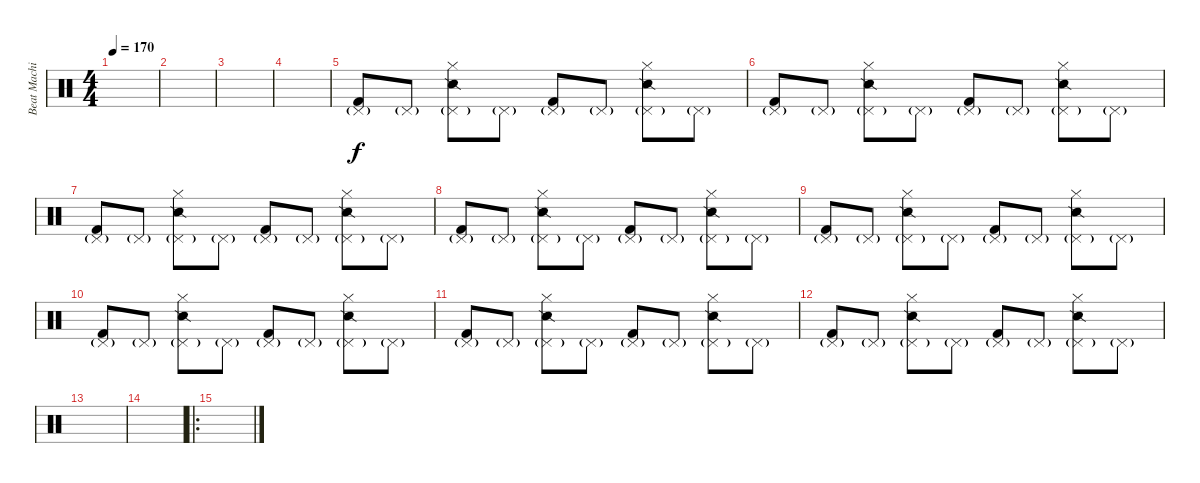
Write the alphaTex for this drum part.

\track ("Beat Machine" "Beat Machi") {instrument percussion}
\staff {score}
\articulation defaults
\ts (4 4)
\tempo 170
\clef neutral
\ks c
|
|
|
|
("Pedal Hi-Hat (hit)"{g} "Kick (hit) 2").8 "Pedal Hi-Hat (hit)"{g}.8 ("Pedal Hi-Hat (hit)"{g} "Snare (side stick) 2" "Hi-Hat (closed)").8 "Pedal Hi-Hat (hit)"{g}.8 ("Pedal Hi-Hat (hit)"{g} "Kick (hit) 2").8 "Pedal Hi-Hat (hit)"{g}.8 ("Pedal Hi-Hat (hit)"{g} "Snare (side stick) 2" "Hi-Hat (closed)").8 "Pedal Hi-Hat (hit)"{g}.8 |
("Pedal Hi-Hat (hit)"{g} "Kick (hit) 2").8 "Pedal Hi-Hat (hit)"{g}.8 ("Pedal Hi-Hat (hit)"{g} "Snare (side stick) 2" "Hi-Hat (closed)").8 "Pedal Hi-Hat (hit)"{g}.8 ("Pedal Hi-Hat (hit)"{g} "Kick (hit) 2").8 "Pedal Hi-Hat (hit)"{g}.8 ("Pedal Hi-Hat (hit)"{g} "Snare (side stick) 2" "Hi-Hat (closed)").8 "Pedal Hi-Hat (hit)"{g}.8 |
("Pedal Hi-Hat (hit)"{g} "Kick (hit) 2").8 "Pedal Hi-Hat (hit)"{g}.8 ("Pedal Hi-Hat (hit)"{g} "Snare (side stick) 2" "Hi-Hat (closed)").8 "Pedal Hi-Hat (hit)"{g}.8 ("Pedal Hi-Hat (hit)"{g} "Kick (hit) 2").8 "Pedal Hi-Hat (hit)"{g}.8 ("Pedal Hi-Hat (hit)"{g} "Snare (side stick) 2" "Hi-Hat (closed)").8 "Pedal Hi-Hat (hit)"{g}.8 |
("Pedal Hi-Hat (hit)"{g} "Kick (hit) 2").8 "Pedal Hi-Hat (hit)"{g}.8 ("Pedal Hi-Hat (hit)"{g} "Snare (side stick) 2" "Hi-Hat (closed)").8 "Pedal Hi-Hat (hit)"{g}.8 ("Pedal Hi-Hat (hit)"{g} "Kick (hit) 2").8 "Pedal Hi-Hat (hit)"{g}.8 ("Pedal Hi-Hat (hit)"{g} "Snare (side stick) 2" "Hi-Hat (closed)").8 "Pedal Hi-Hat (hit)"{g}.8 |
("Pedal Hi-Hat (hit)"{g} "Kick (hit) 2").8 "Pedal Hi-Hat (hit)"{g}.8 ("Pedal Hi-Hat (hit)"{g} "Snare (side stick) 2" "Hi-Hat (closed)").8 "Pedal Hi-Hat (hit)"{g}.8 ("Pedal Hi-Hat (hit)"{g} "Kick (hit) 2").8 "Pedal Hi-Hat (hit)"{g}.8 ("Pedal Hi-Hat (hit)"{g} "Snare (side stick) 2" "Hi-Hat (closed)").8 "Pedal Hi-Hat (hit)"{g}.8 |
("Pedal Hi-Hat (hit)"{g} "Kick (hit) 2").8 "Pedal Hi-Hat (hit)"{g}.8 ("Pedal Hi-Hat (hit)"{g} "Snare (side stick) 2" "Hi-Hat (closed)").8 "Pedal Hi-Hat (hit)"{g}.8 ("Pedal Hi-Hat (hit)"{g} "Kick (hit) 2").8 "Pedal Hi-Hat (hit)"{g}.8 ("Pedal Hi-Hat (hit)"{g} "Snare (side stick) 2" "Hi-Hat (closed)").8 "Pedal Hi-Hat (hit)"{g}.8 |
("Pedal Hi-Hat (hit)"{g} "Kick (hit) 2").8 "Pedal Hi-Hat (hit)"{g}.8 ("Pedal Hi-Hat (hit)"{g} "Snare (side stick) 2" "Hi-Hat (closed)").8 "Pedal Hi-Hat (hit)"{g}.8 ("Pedal Hi-Hat (hit)"{g} "Kick (hit) 2").8 "Pedal Hi-Hat (hit)"{g}.8 ("Pedal Hi-Hat (hit)"{g} "Snare (side stick) 2" "Hi-Hat (closed)").8 "Pedal Hi-Hat (hit)"{g}.8 |
("Pedal Hi-Hat (hit)"{g} "Kick (hit) 2").8 "Pedal Hi-Hat (hit)"{g}.8 ("Pedal Hi-Hat (hit)"{g} "Snare (side stick) 2" "Hi-Hat (closed)").8 "Pedal Hi-Hat (hit)"{g}.8 ("Pedal Hi-Hat (hit)"{g} "Kick (hit) 2").8 "Pedal Hi-Hat (hit)"{g}.8 ("Pedal Hi-Hat (hit)"{g} "Snare (side stick) 2" "Hi-Hat (closed)").8 "Pedal Hi-Hat (hit)"{g}.8 |
|
|
\ro
